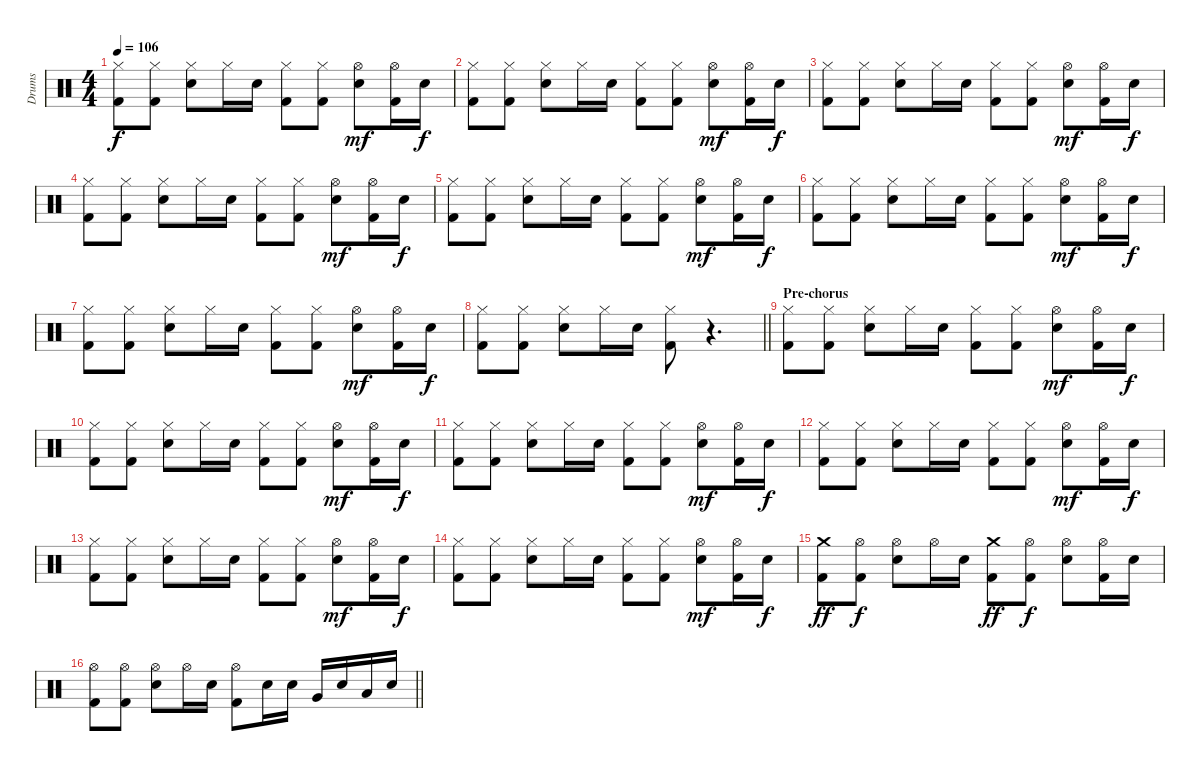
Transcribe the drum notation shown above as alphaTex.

\track ("Drums" "Drums") {instrument percussion}
\staff {score}
\articulation defaults
\ts (4 4)
\tempo 106
\clef neutral
\ks c
("Hi-Hat (closed)" "Kick (hit) 2").8{dy f} ("Hi-Hat (closed)" "Kick (hit) 2").8 ("Hi-Hat (closed)" "Electric Snare (hit)").8 "Hi-Hat (closed)".16 "Electric Snare (hit)".16 ("Hi-Hat (closed)" "Kick (hit) 2").8 ("Hi-Hat (closed)" "Kick (hit) 2").8 ("Hi-Hat (open)" "Electric Snare (hit)").8{dy mf} ("Hi-Hat (open)" "Kick (hit) 2").16 "Electric Snare (hit)".16{dy f} |
("Hi-Hat (closed)" "Kick (hit) 2").8 ("Hi-Hat (closed)" "Kick (hit) 2").8 ("Hi-Hat (closed)" "Electric Snare (hit)").8 "Hi-Hat (closed)".16 "Electric Snare (hit)".16 ("Hi-Hat (closed)" "Kick (hit) 2").8 ("Hi-Hat (closed)" "Kick (hit) 2").8 ("Hi-Hat (open)" "Electric Snare (hit)").8{dy mf} ("Hi-Hat (open)" "Kick (hit) 2").16 "Electric Snare (hit)".16{dy f} |
("Hi-Hat (closed)" "Kick (hit) 2").8 ("Hi-Hat (closed)" "Kick (hit) 2").8 ("Hi-Hat (closed)" "Electric Snare (hit)").8 "Hi-Hat (closed)".16 "Electric Snare (hit)".16 ("Hi-Hat (closed)" "Kick (hit) 2").8 ("Hi-Hat (closed)" "Kick (hit) 2").8 ("Hi-Hat (open)" "Electric Snare (hit)").8{dy mf} ("Hi-Hat (open)" "Kick (hit) 2").16 "Electric Snare (hit)".16{dy f} |
("Hi-Hat (closed)" "Kick (hit) 2").8 ("Hi-Hat (closed)" "Kick (hit) 2").8 ("Hi-Hat (closed)" "Electric Snare (hit)").8 "Hi-Hat (closed)".16 "Electric Snare (hit)".16 ("Hi-Hat (closed)" "Kick (hit) 2").8 ("Hi-Hat (closed)" "Kick (hit) 2").8 ("Hi-Hat (open)" "Electric Snare (hit)").8{dy mf} ("Hi-Hat (open)" "Kick (hit) 2").16 "Electric Snare (hit)".16{dy f} |
("Hi-Hat (closed)" "Kick (hit) 2").8 ("Hi-Hat (closed)" "Kick (hit) 2").8 ("Hi-Hat (closed)" "Electric Snare (hit)").8 "Hi-Hat (closed)".16 "Electric Snare (hit)".16 ("Hi-Hat (closed)" "Kick (hit) 2").8 ("Hi-Hat (closed)" "Kick (hit) 2").8 ("Hi-Hat (open)" "Electric Snare (hit)").8{dy mf} ("Hi-Hat (open)" "Kick (hit) 2").16 "Electric Snare (hit)".16{dy f} |
("Hi-Hat (closed)" "Kick (hit) 2").8 ("Hi-Hat (closed)" "Kick (hit) 2").8 ("Hi-Hat (closed)" "Electric Snare (hit)").8 "Hi-Hat (closed)".16 "Electric Snare (hit)".16 ("Hi-Hat (closed)" "Kick (hit) 2").8 ("Hi-Hat (closed)" "Kick (hit) 2").8 ("Hi-Hat (open)" "Electric Snare (hit)").8{dy mf} ("Hi-Hat (open)" "Kick (hit) 2").16 "Electric Snare (hit)".16{dy f} |
("Hi-Hat (closed)" "Kick (hit) 2").8 ("Hi-Hat (closed)" "Kick (hit) 2").8 ("Hi-Hat (closed)" "Electric Snare (hit)").8 "Hi-Hat (closed)".16 "Electric Snare (hit)".16 ("Hi-Hat (closed)" "Kick (hit) 2").8 ("Hi-Hat (closed)" "Kick (hit) 2").8 ("Hi-Hat (open)" "Electric Snare (hit)").8{dy mf} ("Hi-Hat (open)" "Kick (hit) 2").16 "Electric Snare (hit)".16{dy f} |
\barLineRight lightlight
("Hi-Hat (closed)" "Kick (hit) 2").8 ("Hi-Hat (closed)" "Kick (hit) 2").8 ("Hi-Hat (closed)" "Electric Snare (hit)").8 "Hi-Hat (closed)".16 "Electric Snare (hit)".16 ("Hi-Hat (closed)" "Kick (hit) 2").8 r.4{d} |
\section ("" "Pre-chorus")
("Hi-Hat (closed)" "Kick (hit) 2").8 ("Hi-Hat (closed)" "Kick (hit) 2").8 ("Hi-Hat (closed)" "Electric Snare (hit)").8 "Hi-Hat (closed)".16 "Electric Snare (hit)".16 ("Hi-Hat (closed)" "Kick (hit) 2").8 ("Hi-Hat (closed)" "Kick (hit) 2").8 ("Hi-Hat (open)" "Electric Snare (hit)").8{dy mf} ("Hi-Hat (open)" "Kick (hit) 2").16 "Electric Snare (hit)".16{dy f} |
("Hi-Hat (closed)" "Kick (hit) 2").8 ("Hi-Hat (closed)" "Kick (hit) 2").8 ("Hi-Hat (closed)" "Electric Snare (hit)").8 "Hi-Hat (closed)".16 "Electric Snare (hit)".16 ("Hi-Hat (closed)" "Kick (hit) 2").8 ("Hi-Hat (closed)" "Kick (hit) 2").8 ("Hi-Hat (open)" "Electric Snare (hit)").8{dy mf} ("Hi-Hat (open)" "Kick (hit) 2").16 "Electric Snare (hit)".16{dy f} |
("Hi-Hat (closed)" "Kick (hit) 2").8 ("Hi-Hat (closed)" "Kick (hit) 2").8 ("Hi-Hat (closed)" "Electric Snare (hit)").8 "Hi-Hat (closed)".16 "Electric Snare (hit)".16 ("Hi-Hat (closed)" "Kick (hit) 2").8 ("Hi-Hat (closed)" "Kick (hit) 2").8 ("Hi-Hat (open)" "Electric Snare (hit)").8{dy mf} ("Hi-Hat (open)" "Kick (hit) 2").16 "Electric Snare (hit)".16{dy f} |
("Hi-Hat (closed)" "Kick (hit) 2").8 ("Hi-Hat (closed)" "Kick (hit) 2").8 ("Hi-Hat (closed)" "Electric Snare (hit)").8 "Hi-Hat (closed)".16 "Electric Snare (hit)".16 ("Hi-Hat (closed)" "Kick (hit) 2").8 ("Hi-Hat (closed)" "Kick (hit) 2").8 ("Hi-Hat (open)" "Electric Snare (hit)").8{dy mf} ("Hi-Hat (open)" "Kick (hit) 2").16 "Electric Snare (hit)".16{dy f} |
("Hi-Hat (closed)" "Kick (hit) 2").8 ("Hi-Hat (closed)" "Kick (hit) 2").8 ("Hi-Hat (closed)" "Electric Snare (hit)").8 "Hi-Hat (closed)".16 "Electric Snare (hit)".16 ("Hi-Hat (closed)" "Kick (hit) 2").8 ("Hi-Hat (closed)" "Kick (hit) 2").8 ("Hi-Hat (open)" "Electric Snare (hit)").8{dy mf} ("Hi-Hat (open)" "Kick (hit) 2").16 "Electric Snare (hit)".16{dy f} |
("Hi-Hat (closed)" "Kick (hit) 2").8 ("Hi-Hat (closed)" "Kick (hit) 2").8 ("Hi-Hat (closed)" "Electric Snare (hit)").8 "Hi-Hat (closed)".16 "Electric Snare (hit)".16 ("Hi-Hat (closed)" "Kick (hit) 2").8 ("Hi-Hat (closed)" "Kick (hit) 2").8 ("Hi-Hat (open)" "Electric Snare (hit)").8{dy mf} ("Hi-Hat (open)" "Kick (hit) 2").16 "Electric Snare (hit)".16{dy f} |
("Crash medium (hit)" "Kick (hit) 2").8{dy ff} ("Hi-Hat (open)" "Kick (hit) 2").8{dy f} ("Hi-Hat (open)" "Electric Snare (hit)").8 "Hi-Hat (open)".16 "Electric Snare (hit)".16 ("Crash medium (hit)" "Kick (hit) 2").8{dy ff} ("Hi-Hat (open)" "Kick (hit) 2").8{dy f} ("Hi-Hat (open)" "Electric Snare (hit)").8 ("Hi-Hat (open)" "Kick (hit) 2").16 "Electric Snare (hit)".16 |
\barLineRight lightlight
("Hi-Hat (open)" "Kick (hit) 2").8 ("Hi-Hat (open)" "Kick (hit) 2").8 ("Hi-Hat (open)" "Electric Snare (hit)").8 "Hi-Hat (open)".16 "Electric Snare (hit)".16 ("Hi-Hat (open)" "Kick (hit) 2").8 "Electric Snare (hit)".16 "Electric Snare (hit)".16 "Very Low Tom (hit)".16 "Electric Snare (hit)".16 "Low Tom (hit)".16 "Electric Snare (hit)".16
